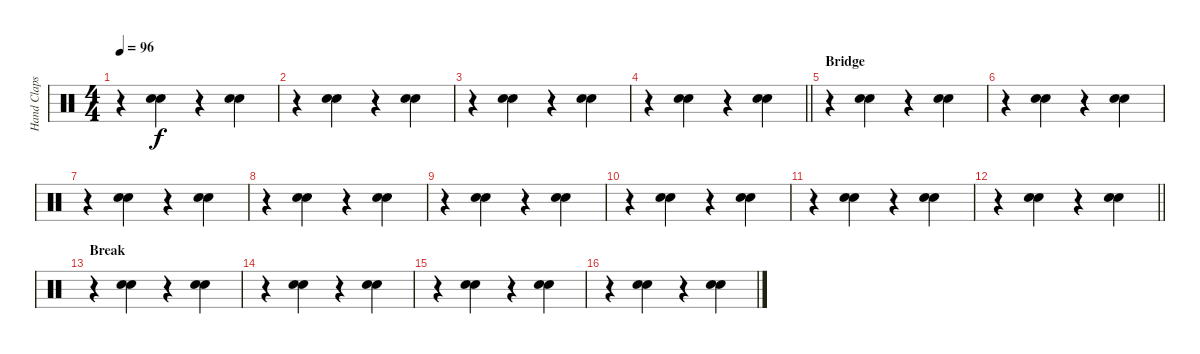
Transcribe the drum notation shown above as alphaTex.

\track ("Hand Claps" "Hand Claps") {instrument percussion}
\staff {score}
\articulation defaults
\ts (4 4)
\tempo 96
\clef neutral
\ks c
r.4{dy f} ("Hand Clap (hit)" "Hand Clap (hit)").4 r.4 ("Hand Clap (hit)" "Hand Clap (hit)").4 |
r.4 ("Hand Clap (hit)" "Hand Clap (hit)").4 r.4 ("Hand Clap (hit)" "Hand Clap (hit)").4 |
r.4 ("Hand Clap (hit)" "Hand Clap (hit)").4 r.4 ("Hand Clap (hit)" "Hand Clap (hit)").4 |
\barLineRight lightlight
r.4 ("Hand Clap (hit)" "Hand Clap (hit)").4 r.4 ("Hand Clap (hit)" "Hand Clap (hit)").4 |
\section ("" "Bridge")
r.4 ("Hand Clap (hit)" "Hand Clap (hit)").4 r.4 ("Hand Clap (hit)" "Hand Clap (hit)").4 |
r.4 ("Hand Clap (hit)" "Hand Clap (hit)").4 r.4 ("Hand Clap (hit)" "Hand Clap (hit)").4 |
r.4 ("Hand Clap (hit)" "Hand Clap (hit)").4 r.4 ("Hand Clap (hit)" "Hand Clap (hit)").4 |
r.4 ("Hand Clap (hit)" "Hand Clap (hit)").4 r.4 ("Hand Clap (hit)" "Hand Clap (hit)").4 |
r.4 ("Hand Clap (hit)" "Hand Clap (hit)").4 r.4 ("Hand Clap (hit)" "Hand Clap (hit)").4 |
r.4 ("Hand Clap (hit)" "Hand Clap (hit)").4 r.4 ("Hand Clap (hit)" "Hand Clap (hit)").4 |
r.4 ("Hand Clap (hit)" "Hand Clap (hit)").4 r.4 ("Hand Clap (hit)" "Hand Clap (hit)").4 |
\barLineRight lightlight
r.4 ("Hand Clap (hit)" "Hand Clap (hit)").4 r.4 ("Hand Clap (hit)" "Hand Clap (hit)").4 |
\section ("" "Break")
r.4 ("Hand Clap (hit)" "Hand Clap (hit)").4 r.4 ("Hand Clap (hit)" "Hand Clap (hit)").4 |
r.4 ("Hand Clap (hit)" "Hand Clap (hit)").4 r.4 ("Hand Clap (hit)" "Hand Clap (hit)").4 |
r.4 ("Hand Clap (hit)" "Hand Clap (hit)").4 r.4 ("Hand Clap (hit)" "Hand Clap (hit)").4 |
r.4 ("Hand Clap (hit)" "Hand Clap (hit)").4 r.4 ("Hand Clap (hit)" "Hand Clap (hit)").4
